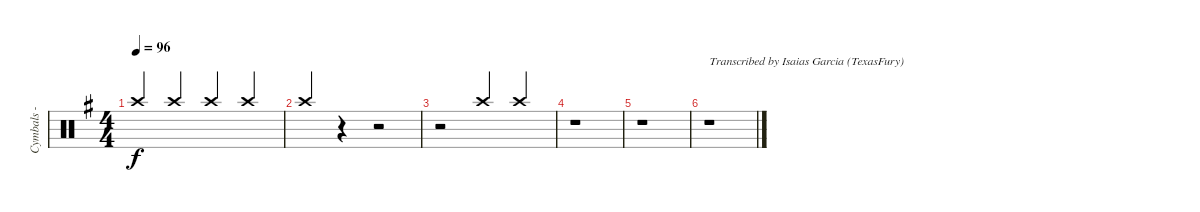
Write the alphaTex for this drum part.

\track ("Cymbals - crash" "Cymbals - ") {instrument percussion}
\staff {score}
\articulation defaults
\ts (4 4)
\tempo 96
\clef neutral
\ks g "Crash high (hit)".4{dy f beam Up} "Crash high (hit)".4{beam Up} "Crash high (hit)".4{beam Up} "Crash high (hit)".4{beam Up}
|
"Crash high (hit)".4{beam Up} r.4 r.2 |
r.2 "Crash high (hit)".4{beam Up} "Crash high (hit)".4{beam Up} |
r.1 |
r.1 |
r.1{txt "Transcribed by Isaias Garcia (TexasFury)"}
